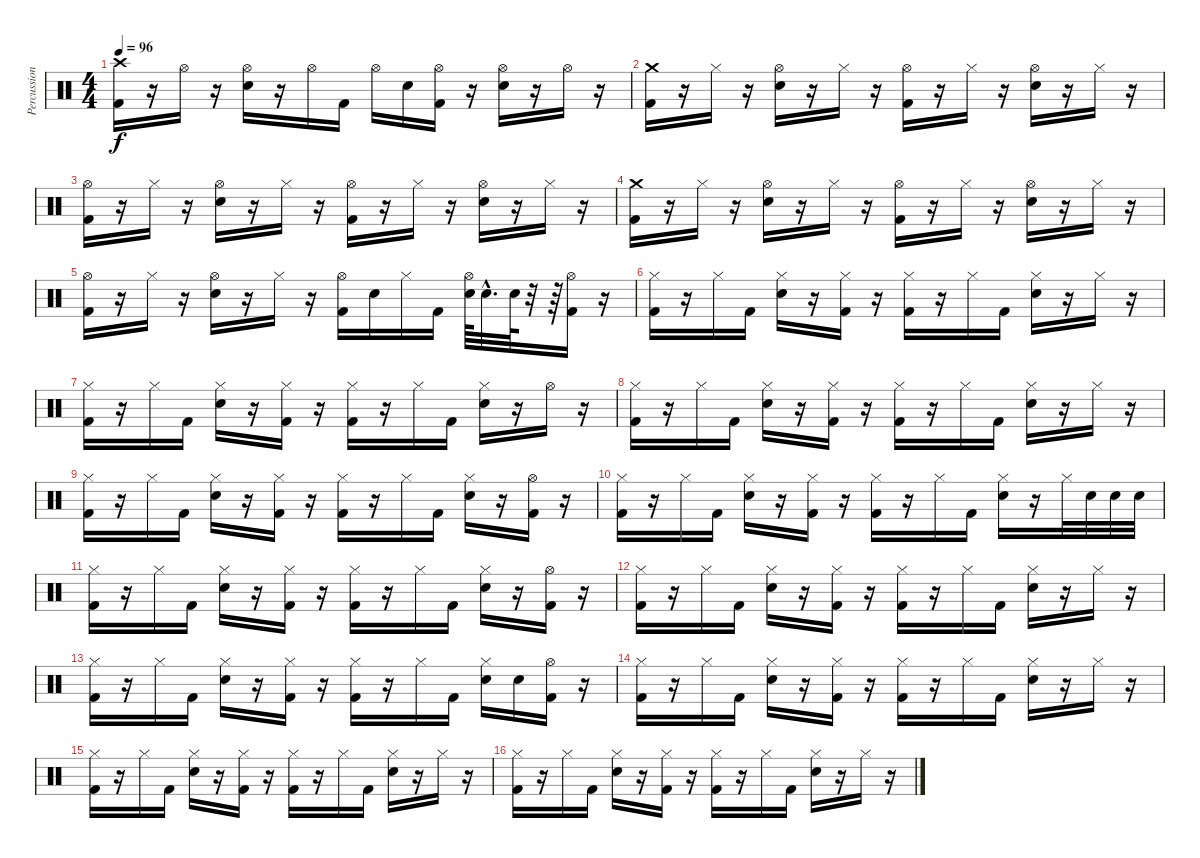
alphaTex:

\track ("Percussion" "Percussion") {instrument percussion}
\staff {score}
\articulation defaults
\ts (4 4)
\tempo 96
\clef neutral
\ks c
("Crash high (hit)" "Kick (hit) 2").16{dy f} r.16 "Hi-Hat (open)".16 r.16 ("Hi-Hat (open)" "Electric Snare (hit)").16 r.16 "Hi-Hat (open)".16 "Kick (hit) 2".16 "Hi-Hat (open)".16 "Electric Snare (hit)".16 ("Hi-Hat (open)" "Kick (hit) 2").16 r.16 ("Hi-Hat (open)" "Electric Snare (hit)").16 r.16 "Hi-Hat (open)".16 r.16 |
("Kick (hit) 2" "Crash medium (hit)").16 r.16 "Hi-Hat (closed)".16 r.16 ("Electric Snare (hit)" "Hi-Hat (open)").16 r.16 "Hi-Hat (closed)".16 r.16 ("Kick (hit) 2" "Hi-Hat (open)").16 r.16 "Hi-Hat (closed)".16 r.16 ("Hi-Hat (open)" "Electric Snare (hit)").16 r.16 "Hi-Hat (closed)".16 r.16 |
("Hi-Hat (open)" "Kick (hit) 2").16 r.16 "Hi-Hat (closed)".16 r.16 ("Hi-Hat (open)" "Electric Snare (hit)").16 r.16 "Hi-Hat (closed)".16 r.16 ("Kick (hit) 2" "Hi-Hat (open)").16 r.16 "Hi-Hat (closed)".16 r.16 ("Hi-Hat (open)" "Electric Snare (hit)").16 r.16 "Hi-Hat (closed)".16 r.16 |
("Kick (hit) 2" "Crash medium (hit)").16 r.16 "Hi-Hat (closed)".16 r.16 ("Electric Snare (hit)" "Hi-Hat (open)").16 r.16 "Hi-Hat (closed)".16 r.16 ("Kick (hit) 2" "Hi-Hat (open)").16 r.16 "Hi-Hat (closed)".16 r.16 ("Hi-Hat (open)" "Electric Snare (hit)").16 r.16 "Hi-Hat (closed)".16 r.16 |
("Hi-Hat (open)" "Kick (hit) 2").16 r.16 "Hi-Hat (closed)".16 r.16 ("Hi-Hat (open)" "Electric Snare (hit)").16 r.16 "Hi-Hat (closed)".16 r.16 ("Kick (hit) 2" "Hi-Hat (open)").16 "Electric Snare (hit)".16 "Hi-Hat (closed)".16 "Kick (hit) 2".16 ("Hi-Hat (open)" "Electric Snare (hit)").64 "Electric Snare (hit)"{hac}.32{d} "Electric Snare (hit)".64 r.32 r.64 ("Kick (hit) 2" "Hi-Hat (open)").16 r.16 |
("Kick (hit) 2" "Hi-Hat (closed)").16 r.16 "Hi-Hat (closed)".16 "Kick (hit) 2".16 ("Electric Snare (hit)" "Hi-Hat (closed)").16 r.16 ("Kick (hit) 2" "Hi-Hat (closed)").16 r.16 ("Kick (hit) 2" "Hi-Hat (closed)").16 r.16 "Hi-Hat (closed)".16 "Kick (hit) 2".16 ("Electric Snare (hit)" "Hi-Hat (closed)").16 r.16 "Hi-Hat (closed)".16 r.16 |
("Hi-Hat (closed)" "Kick (hit) 2").16 r.16 "Hi-Hat (closed)".16 "Kick (hit) 2".16 ("Electric Snare (hit)" "Hi-Hat (closed)").16 r.16 ("Kick (hit) 2" "Hi-Hat (closed)").16 r.16 ("Kick (hit) 2" "Hi-Hat (closed)").16 r.16 "Hi-Hat (closed)".16 "Kick (hit) 2".16 ("Electric Snare (hit)" "Hi-Hat (closed)").16 r.16 "Hi-Hat (open)".16 r.16 |
("Kick (hit) 2" "Hi-Hat (closed)").16 r.16 "Hi-Hat (closed)".16 "Kick (hit) 2".16 ("Electric Snare (hit)" "Hi-Hat (closed)").16 r.16 ("Kick (hit) 2" "Hi-Hat (closed)").16 r.16 ("Kick (hit) 2" "Hi-Hat (closed)").16 r.16 "Hi-Hat (closed)".16 "Kick (hit) 2".16 ("Electric Snare (hit)" "Hi-Hat (closed)").16 r.16 "Hi-Hat (closed)".16 r.16 |
("Hi-Hat (closed)" "Kick (hit) 2").16 r.16 "Hi-Hat (closed)".16 "Kick (hit) 2".16 ("Electric Snare (hit)" "Hi-Hat (closed)").16 r.16 ("Kick (hit) 2" "Hi-Hat (closed)").16 r.16 ("Kick (hit) 2" "Hi-Hat (closed)").16 r.16 "Hi-Hat (closed)".16 "Kick (hit) 2".16 ("Electric Snare (hit)" "Hi-Hat (closed)").16 r.16 ("Kick (hit) 2" "Hi-Hat (open)").16 r.16 |
("Kick (hit) 2" "Hi-Hat (closed)").16 r.16 "Hi-Hat (closed)".16 "Kick (hit) 2".16 ("Electric Snare (hit)" "Hi-Hat (closed)").16 r.16 ("Kick (hit) 2" "Hi-Hat (closed)").16 r.16 ("Kick (hit) 2" "Hi-Hat (closed)").16 r.16 "Hi-Hat (closed)".16 "Kick (hit) 2".16 ("Electric Snare (hit)" "Hi-Hat (closed)").16 r.16 "Hi-Hat (closed)".32 "Electric Snare (hit)".32 "Electric Snare (hit)".32 "Electric Snare (hit)".32 |
("Hi-Hat (closed)" "Kick (hit) 2").16 r.16 "Hi-Hat (closed)".16 "Kick (hit) 2".16 ("Electric Snare (hit)" "Hi-Hat (closed)").16 r.16 ("Kick (hit) 2" "Hi-Hat (closed)").16 r.16 ("Kick (hit) 2" "Hi-Hat (closed)").16 r.16 "Hi-Hat (closed)".16 "Kick (hit) 2".16 ("Electric Snare (hit)" "Hi-Hat (closed)").16 r.16 ("Kick (hit) 2" "Hi-Hat (open)").16 r.16 |
("Kick (hit) 2" "Hi-Hat (closed)").16 r.16 "Hi-Hat (closed)".16 "Kick (hit) 2".16 ("Electric Snare (hit)" "Hi-Hat (closed)").16 r.16 ("Kick (hit) 2" "Hi-Hat (closed)").16 r.16 ("Kick (hit) 2" "Hi-Hat (closed)").16 r.16 "Hi-Hat (closed)".16 "Kick (hit) 2".16 ("Electric Snare (hit)" "Hi-Hat (closed)").16 r.16 "Hi-Hat (closed)".16 r.16 |
("Hi-Hat (closed)" "Kick (hit) 2").16 r.16 "Hi-Hat (closed)".16 "Kick (hit) 2".16 ("Electric Snare (hit)" "Hi-Hat (closed)").16 r.16 ("Kick (hit) 2" "Hi-Hat (closed)").16 r.16 ("Kick (hit) 2" "Hi-Hat (closed)").16 r.16 "Hi-Hat (closed)".16 "Kick (hit) 2".16 ("Electric Snare (hit)" "Hi-Hat (closed)").16 "Electric Snare (hit)".16 ("Kick (hit) 2" "Hi-Hat (open)").16 r.16 |
("Kick (hit) 2" "Hi-Hat (closed)").16 r.16 "Hi-Hat (closed)".16 "Kick (hit) 2".16 ("Electric Snare (hit)" "Hi-Hat (closed)").16 r.16 ("Kick (hit) 2" "Hi-Hat (closed)").16 r.16 ("Kick (hit) 2" "Hi-Hat (closed)").16 r.16 "Hi-Hat (closed)".16 "Kick (hit) 2".16 ("Electric Snare (hit)" "Hi-Hat (closed)").16 r.16 "Hi-Hat (closed)".16 r.16 |
("Hi-Hat (closed)" "Kick (hit) 2").16 r.16 "Hi-Hat (closed)".16 "Kick (hit) 2".16 ("Electric Snare (hit)" "Hi-Hat (closed)").16 r.16 ("Kick (hit) 2" "Hi-Hat (closed)").16 r.16 ("Kick (hit) 2" "Hi-Hat (closed)").16 r.16 "Hi-Hat (closed)".16 "Kick (hit) 2".16 ("Electric Snare (hit)" "Hi-Hat (closed)").16 r.16 "Hi-Hat (closed)".16 r.16 |
("Kick (hit) 2" "Hi-Hat (closed)").16 r.16 "Hi-Hat (closed)".16 "Kick (hit) 2".16 ("Electric Snare (hit)" "Hi-Hat (closed)").16 r.16 ("Kick (hit) 2" "Hi-Hat (closed)").16 r.16 ("Kick (hit) 2" "Hi-Hat (closed)").16 r.16 "Hi-Hat (closed)".16 "Kick (hit) 2".16 ("Electric Snare (hit)" "Hi-Hat (closed)").16 r.16 "Hi-Hat (closed)".16 r.16
